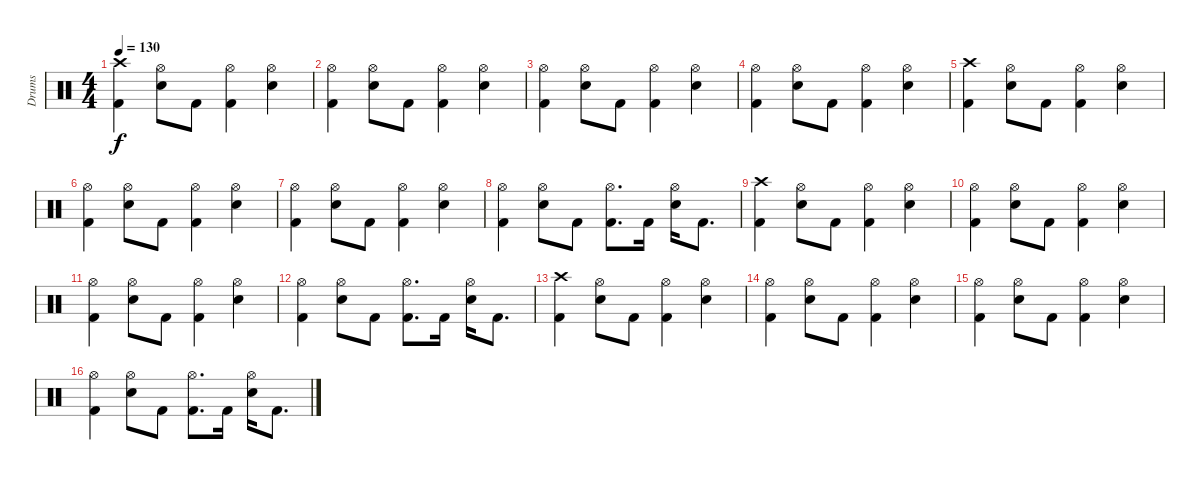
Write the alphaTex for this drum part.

\track ("Drums" "Drums") {instrument percussion}
\staff {score}
\articulation defaults
\ts (4 4)
\tempo 130
\clef neutral
\ks c
("Crash high (hit)" "Kick (hit) 2").4{dy f} ("Hi-Hat (open)" "Electric Snare (hit)").8 "Kick (hit) 2".8 ("Hi-Hat (open)" "Kick (hit) 2").4 ("Hi-Hat (open)" "Electric Snare (hit)").4 |
("Hi-Hat (open)" "Kick (hit) 2").4 ("Hi-Hat (open)" "Electric Snare (hit)").8 "Kick (hit) 2".8 ("Hi-Hat (open)" "Kick (hit) 2").4 ("Hi-Hat (open)" "Electric Snare (hit)").4 |
("Hi-Hat (open)" "Kick (hit) 2").4 ("Hi-Hat (open)" "Electric Snare (hit)").8 "Kick (hit) 2".8 ("Hi-Hat (open)" "Kick (hit) 2").4 ("Hi-Hat (open)" "Electric Snare (hit)").4 |
("Hi-Hat (open)" "Kick (hit) 2").4 ("Hi-Hat (open)" "Electric Snare (hit)").8 "Kick (hit) 2".8 ("Hi-Hat (open)" "Kick (hit) 2").4 ("Hi-Hat (open)" "Electric Snare (hit)").4 |
("Crash high (hit)" "Kick (hit) 2").4 ("Hi-Hat (open)" "Electric Snare (hit)").8 "Kick (hit) 2".8 ("Hi-Hat (open)" "Kick (hit) 2").4 ("Hi-Hat (open)" "Electric Snare (hit)").4 |
("Hi-Hat (open)" "Kick (hit) 2").4 ("Hi-Hat (open)" "Electric Snare (hit)").8 "Kick (hit) 2".8 ("Hi-Hat (open)" "Kick (hit) 2").4 ("Hi-Hat (open)" "Electric Snare (hit)").4 |
("Hi-Hat (open)" "Kick (hit) 2").4 ("Hi-Hat (open)" "Electric Snare (hit)").8 "Kick (hit) 2".8 ("Hi-Hat (open)" "Kick (hit) 2").4 ("Hi-Hat (open)" "Electric Snare (hit)").4 |
("Hi-Hat (open)" "Kick (hit) 2").4 ("Hi-Hat (open)" "Electric Snare (hit)").8 "Kick (hit) 2".8 ("Hi-Hat (open)" "Kick (hit) 2").8{d} "Kick (hit) 2".16 ("Hi-Hat (open)" "Electric Snare (hit)").16 "Kick (hit) 2".8{d} |
("Crash high (hit)" "Kick (hit) 2").4 ("Hi-Hat (open)" "Electric Snare (hit)").8 "Kick (hit) 2".8 ("Hi-Hat (open)" "Kick (hit) 2").4 ("Hi-Hat (open)" "Electric Snare (hit)").4 |
("Hi-Hat (open)" "Kick (hit) 2").4 ("Hi-Hat (open)" "Electric Snare (hit)").8 "Kick (hit) 2".8 ("Hi-Hat (open)" "Kick (hit) 2").4 ("Hi-Hat (open)" "Electric Snare (hit)").4 |
("Hi-Hat (open)" "Kick (hit) 2").4 ("Hi-Hat (open)" "Electric Snare (hit)").8 "Kick (hit) 2".8 ("Hi-Hat (open)" "Kick (hit) 2").4 ("Hi-Hat (open)" "Electric Snare (hit)").4 |
("Hi-Hat (open)" "Kick (hit) 2").4 ("Hi-Hat (open)" "Electric Snare (hit)").8 "Kick (hit) 2".8 ("Hi-Hat (open)" "Kick (hit) 2").8{d} "Kick (hit) 2".16 ("Hi-Hat (open)" "Electric Snare (hit)").16 "Kick (hit) 2".8{d} |
("Crash high (hit)" "Kick (hit) 2").4 ("Hi-Hat (open)" "Electric Snare (hit)").8 "Kick (hit) 2".8 ("Hi-Hat (open)" "Kick (hit) 2").4 ("Hi-Hat (open)" "Electric Snare (hit)").4 |
("Hi-Hat (open)" "Kick (hit) 2").4 ("Hi-Hat (open)" "Electric Snare (hit)").8 "Kick (hit) 2".8 ("Hi-Hat (open)" "Kick (hit) 2").4 ("Hi-Hat (open)" "Electric Snare (hit)").4 |
("Hi-Hat (open)" "Kick (hit) 2").4 ("Hi-Hat (open)" "Electric Snare (hit)").8 "Kick (hit) 2".8 ("Hi-Hat (open)" "Kick (hit) 2").4 ("Hi-Hat (open)" "Electric Snare (hit)").4 |
("Hi-Hat (open)" "Kick (hit) 2").4 ("Hi-Hat (open)" "Electric Snare (hit)").8 "Kick (hit) 2".8 ("Hi-Hat (open)" "Kick (hit) 2").8{d} "Kick (hit) 2".16 ("Hi-Hat (open)" "Electric Snare (hit)").16 "Kick (hit) 2".8{d}
